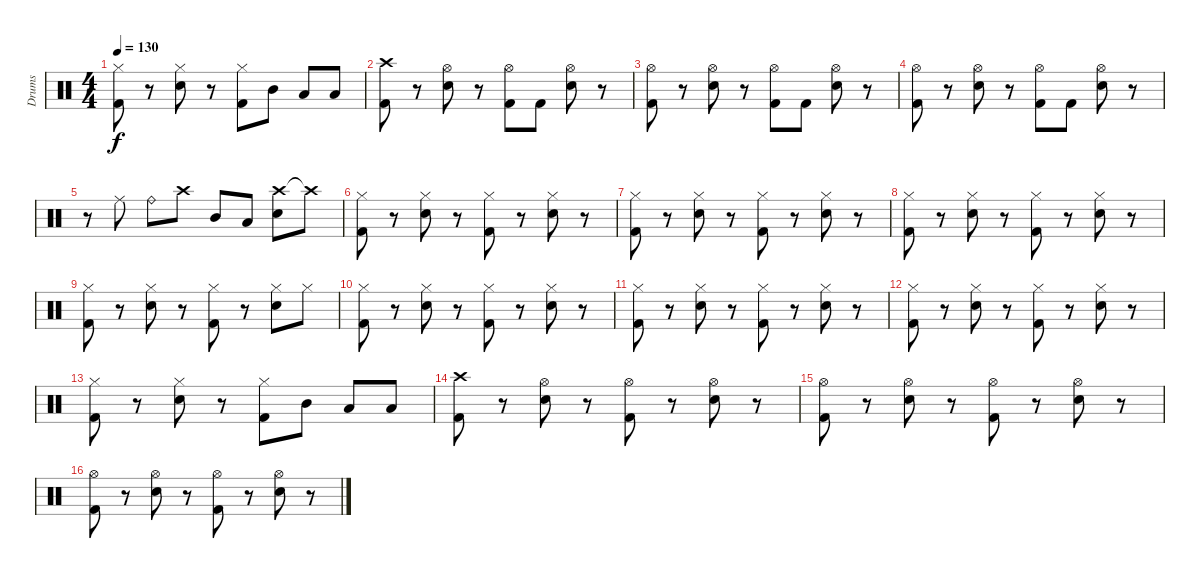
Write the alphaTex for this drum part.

\track ("Drums" "Drums") {instrument percussion}
\staff {score}
\articulation defaults
\ts (4 4)
\tempo 130
\clef neutral
\ks c
("Hi-Hat (closed)" "Kick (hit) 2").8{dy f} r.8 ("Hi-Hat (closed)" "Snare (hit) 2").8 r.8 ("Hi-Hat (closed)" "Kick (hit) 2").8 "Mid Tom (hit)".8 "Low Tom (hit)".8 "Low Floor Tom (hit)".8 |
("Crash high (hit)" "Kick (hit) 2").8 r.8 ("Hi-Hat (open)" "Snare (hit) 2").8 r.8 ("Hi-Hat (open)" "Kick (hit) 2").8 "Kick (hit) 2".8 ("Hi-Hat (open)" "Snare (hit) 2").8 r.8 |
("Hi-Hat (open)" "Kick (hit) 2").8 r.8 ("Hi-Hat (open)" "Snare (hit) 2").8 r.8 ("Hi-Hat (open)" "Kick (hit) 2").8 "Kick (hit) 2".8 ("Hi-Hat (open)" "Snare (hit) 2").8 r.8 |
("Hi-Hat (open)" "Kick (hit) 2").8 r.8 ("Hi-Hat (open)" "Snare (hit) 2").8 r.8 ("Hi-Hat (open)" "Kick (hit) 2").8 "Kick (hit) 2".8 ("Hi-Hat (open)" "Snare (hit) 2").8 r.8 |
r.8 "Ride (middle)".8 "Ride (bell)".8 "Crash high (hit)".8 "Mid Tom (hit)".8 "Low Tom (hit)".8 ("Crash high (hit)" "Snare (hit) 2").8 "Crash high (hit)"{t}.8 |
("Hi-Hat (closed)" "Kick (hit) 2").8 r.8 ("Hi-Hat (closed)" "Snare (hit) 2").8 r.8 ("Hi-Hat (closed)" "Kick (hit) 2").8 r.8 ("Hi-Hat (closed)" "Snare (hit) 2").8 r.8 |
("Hi-Hat (closed)" "Kick (hit) 2").8 r.8 ("Hi-Hat (closed)" "Snare (hit) 2").8 r.8 ("Hi-Hat (closed)" "Kick (hit) 2").8 r.8 ("Hi-Hat (closed)" "Snare (hit) 2").8 r.8 |
("Hi-Hat (closed)" "Kick (hit) 2").8 r.8 ("Hi-Hat (closed)" "Snare (hit) 2").8 r.8 ("Hi-Hat (closed)" "Kick (hit) 2").8 r.8 ("Hi-Hat (closed)" "Snare (hit) 2").8 r.8 |
("Hi-Hat (closed)" "Kick (hit) 2").8 r.8 ("Hi-Hat (closed)" "Snare (hit) 2").8 r.8 ("Hi-Hat (closed)" "Kick (hit) 2").8 r.8 ("Hi-Hat (closed)" "Snare (hit) 2").8 "Hi-Hat (closed)".8 |
("Hi-Hat (closed)" "Kick (hit) 2").8 r.8 ("Hi-Hat (closed)" "Snare (hit) 2").8 r.8 ("Hi-Hat (closed)" "Kick (hit) 2").8 r.8 ("Hi-Hat (closed)" "Snare (hit) 2").8 r.8 |
("Hi-Hat (closed)" "Kick (hit) 2").8 r.8 ("Hi-Hat (closed)" "Snare (hit) 2").8 r.8 ("Hi-Hat (closed)" "Kick (hit) 2").8 r.8 ("Hi-Hat (closed)" "Snare (hit) 2").8 r.8 |
("Hi-Hat (closed)" "Kick (hit) 2").8 r.8 ("Hi-Hat (closed)" "Snare (hit) 2").8 r.8 ("Hi-Hat (closed)" "Kick (hit) 2").8 r.8 ("Hi-Hat (closed)" "Snare (hit) 2").8 r.8 |
("Hi-Hat (closed)" "Kick (hit) 2").8 r.8 ("Hi-Hat (closed)" "Snare (hit) 2").8 r.8 ("Hi-Hat (closed)" "Kick (hit) 2").8 "Mid Tom (hit)".8 "Low Tom (hit)".8 "Low Floor Tom (hit)".8 |
("Crash high (hit)" "Kick (hit) 2").8 r.8 ("Hi-Hat (open)" "Snare (hit) 2").8 r.8 ("Hi-Hat (open)" "Kick (hit) 2").8 r.8 ("Hi-Hat (open)" "Snare (hit) 2").8 r.8 |
("Hi-Hat (open)" "Kick (hit) 2").8 r.8 ("Hi-Hat (open)" "Snare (hit) 2").8 r.8 ("Hi-Hat (open)" "Kick (hit) 2").8 r.8 ("Hi-Hat (open)" "Snare (hit) 2").8 r.8 |
("Hi-Hat (open)" "Kick (hit) 2").8 r.8 ("Hi-Hat (open)" "Snare (hit) 2").8 r.8 ("Hi-Hat (open)" "Kick (hit) 2").8 r.8 ("Hi-Hat (open)" "Snare (hit) 2").8 r.8
